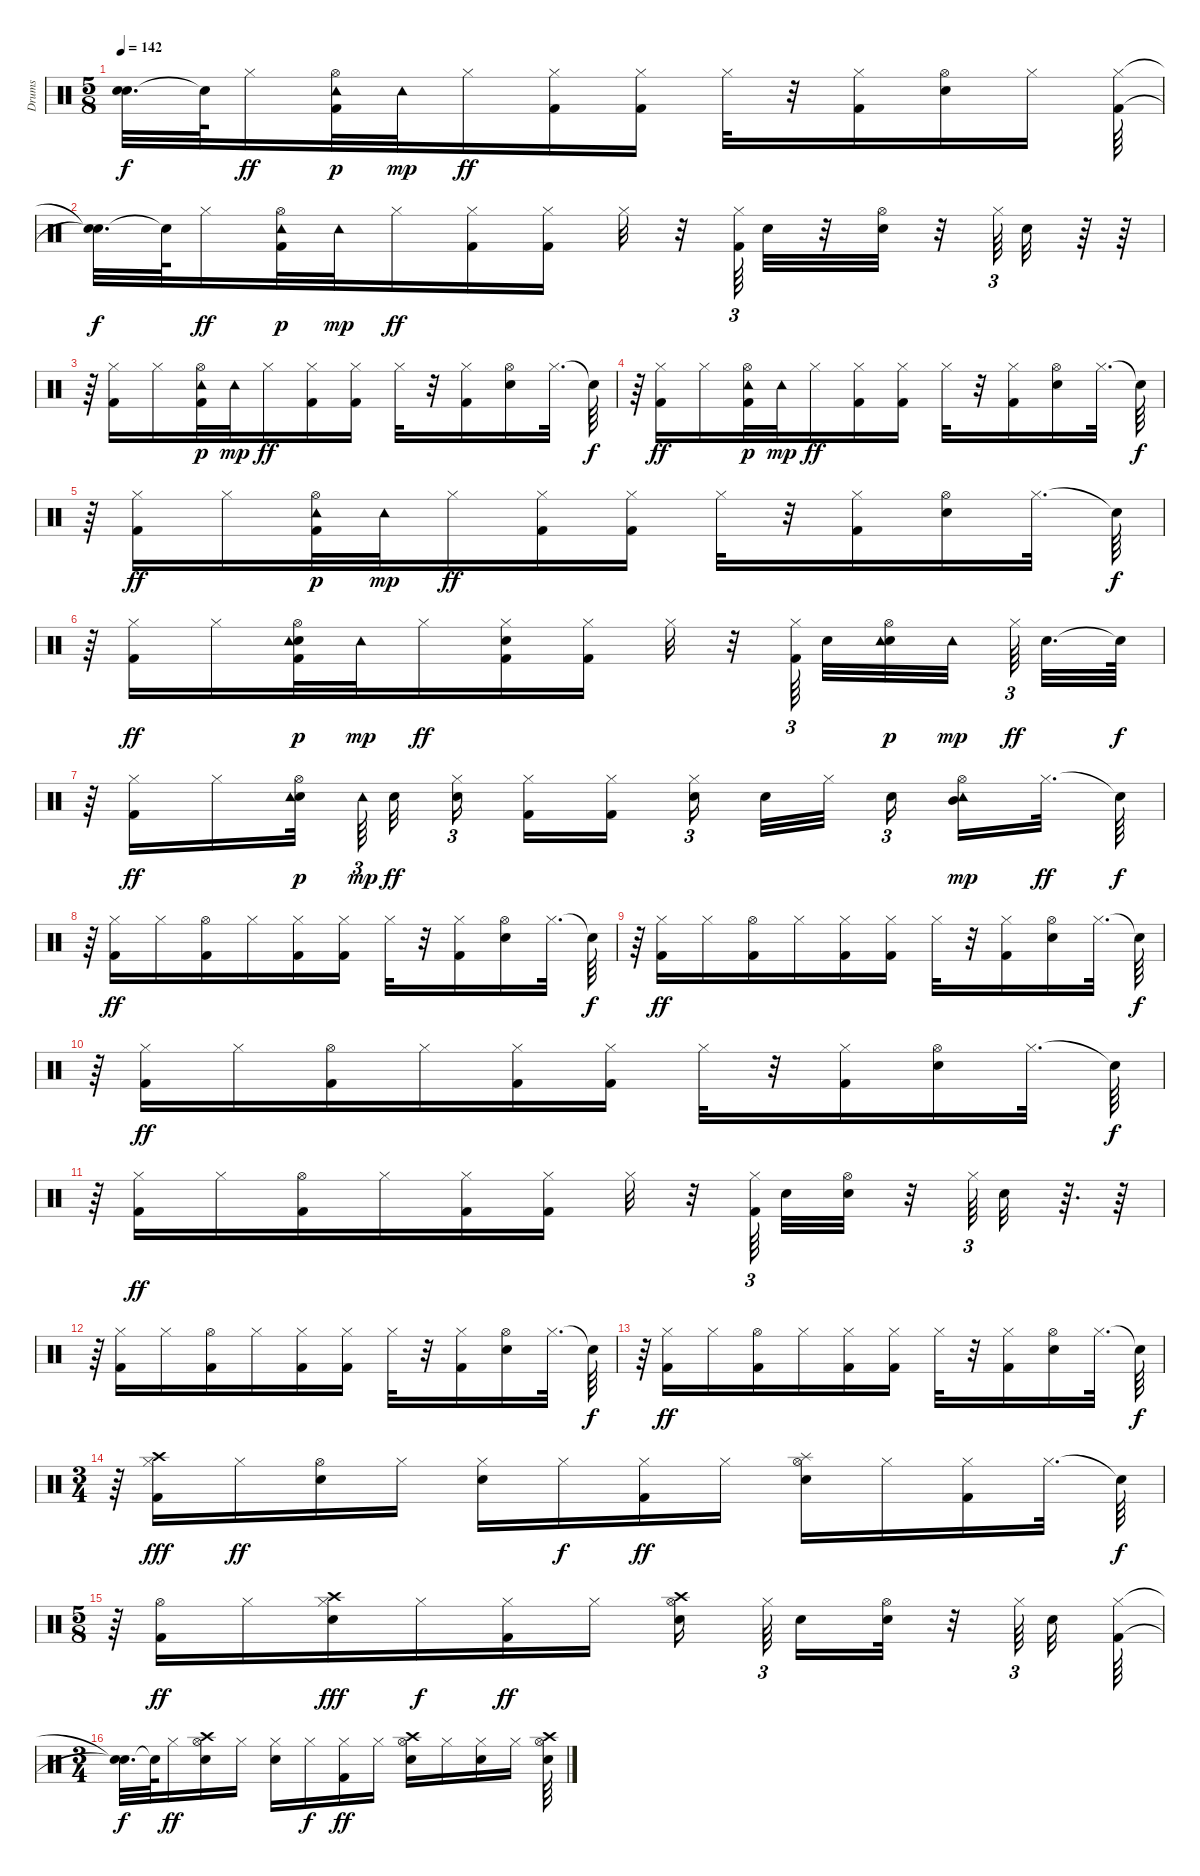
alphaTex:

\track ("Drums                               " "Drums     ") {instrument percussion}
\staff {score}
\articulation defaults
\ts (5 8)
\tempo 142
\clef neutral
\ks c
("Snare (hit)"{t} "Snare (hit)"{t}).32{d dy f} "Snare (hit)"{t}.64 "Hi-Hat (closed)".16{dy ff} ("Hi-Hat (open)" "Kick (hit) 2" "Tambourine (hit)").32{dy p} "Tambourine (hit)".32{dy mp} "Hi-Hat (closed)".16{dy ff} ("Kick (hit) 2" "Hi-Hat (closed)").16 ("Kick (hit) 2" "Hi-Hat (closed)").16 "Hi-Hat (closed)".32 r.32 ("Kick (hit) 2" "Hi-Hat (closed)").16 ("Hi-Hat (open)" "Snare (hit) 2").16 "Hi-Hat (closed)".16 ("Hi-Hat (closed)" "Kick (hit) 2").64 |
("Snare (hit)"{t} "Snare (hit)"{t}).32{d dy f} "Snare (hit)"{t}.64 "Hi-Hat (closed)".16{dy ff} ("Hi-Hat (open)" "Kick (hit) 2" "Tambourine (hit)").32{dy p} "Tambourine (hit)".32{dy mp} "Hi-Hat (closed)".16{dy ff} ("Hi-Hat (closed)" "Kick (hit) 2").16 ("Kick (hit) 2" "Hi-Hat (closed)").16 "Hi-Hat (closed)".32 r.32 ("Kick (hit) 2" "Hi-Hat (closed)").64{tu (3 2)} "Snare (hit) 2".32 r.32 ("Hi-Hat (open)" "Snare (hit) 2").32 r.32 "Hi-Hat (closed)".64{tu (3 2)} "Snare (hit) 2".32 r.64 r.64 |
r.64 ("Hi-Hat (closed)" "Kick (hit) 2").16 "Hi-Hat (closed)".16 ("Hi-Hat (open)" "Kick (hit) 2" "Tambourine (hit)").32{dy p} "Tambourine (hit)".32{dy mp} "Hi-Hat (closed)".16{dy ff} ("Kick (hit) 2" "Hi-Hat (closed)").16 ("Kick (hit) 2" "Hi-Hat (closed)").16 "Hi-Hat (closed)".32 r.32 ("Kick (hit) 2" "Hi-Hat (closed)").16 ("Hi-Hat (open)" "Snare (hit) 2").16 "Hi-Hat (closed)".32{d} "Snare (hit)"{t}.64{dy f} |
r.64 ("Kick (hit) 2" "Hi-Hat (closed)").16{dy ff} "Hi-Hat (closed)".16 ("Kick (hit) 2" "Hi-Hat (open)" "Tambourine (hit)").32{dy p} "Tambourine (hit)".32{dy mp} "Hi-Hat (closed)".16{dy ff} ("Hi-Hat (closed)" "Kick (hit) 2").16 ("Kick (hit) 2" "Hi-Hat (closed)").16 "Hi-Hat (closed)".32 r.32 ("Kick (hit) 2" "Hi-Hat (closed)").16 ("Hi-Hat (open)" "Snare (hit) 2").16 "Hi-Hat (closed)".32{d} "Snare (hit)"{t}.64{dy f} |
r.64 ("Hi-Hat (closed)" "Kick (hit) 2").16{dy ff} "Hi-Hat (closed)".16 ("Kick (hit) 2" "Hi-Hat (open)" "Tambourine (hit)").32{dy p} "Tambourine (hit)".32{dy mp} "Hi-Hat (closed)".16{dy ff} ("Hi-Hat (closed)" "Kick (hit) 2").16 ("Kick (hit) 2" "Hi-Hat (closed)").16 "Hi-Hat (closed)".32 r.32 ("Kick (hit) 2" "Hi-Hat (closed)").16 ("Snare (hit) 2" "Hi-Hat (open)").16 "Hi-Hat (closed)".32{d} "Snare (hit)"{t}.64{dy f} |
r.64 ("Kick (hit) 2" "Hi-Hat (closed)").16{dy ff} "Hi-Hat (closed)".16 ("Hi-Hat (open)" "Snare (hit) 2" "Kick (hit) 2" "Tambourine (hit)").32{dy p} "Tambourine (hit)".32{dy mp} "Hi-Hat (closed)".16{dy ff} ("Hi-Hat (closed)" "Kick (hit) 2" "Snare (hit) 2").16 ("Kick (hit) 2" "Hi-Hat (closed)").16 "Hi-Hat (closed)".32 r.32 ("Kick (hit) 2" "Hi-Hat (closed)").64{tu (3 2)} "Snare (hit) 2".32 ("Snare (hit) 2" "Hi-Hat (open)" "Tambourine (hit)").32{dy p} "Tambourine (hit)".32{dy mp} "Hi-Hat (closed)".64{tu (3 2) dy ff} "Snare (hit) 2".32{d} "Snare (hit)"{t}.64{dy f} |
r.64 ("Hi-Hat (closed)" "Kick (hit) 2").16{dy ff} "Hi-Hat (closed)".16 ("Snare (hit) 2" "Hi-Hat (open)" "Tambourine (hit)").32{dy p} "Tambourine (hit)".64{tu (3 2) dy mp} "Snare (hit) 2".32{dy ff} ("Hi-Hat (closed)" "Snare (hit) 2").16{tu (3 2)} ("Hi-Hat (closed)" "Kick (hit) 2").16 ("Kick (hit) 2" "Hi-Hat (closed)").16 ("Hi-Hat (closed)" "Snare (hit) 2").16{tu (3 2)} "Snare (hit) 2".32 "Hi-Hat (closed)".32 "Snare (hit) 2".16{tu (3 2)} ("Mid Tom (hit)" "Hi-Hat (open)" "Tambourine (hit)").16{dy mp} "Hi-Hat (closed)".32{d dy ff} "Snare (hit)"{t}.64{dy f} |
r.64 ("Kick (hit) 2" "Hi-Hat (closed)").16{dy ff} "Hi-Hat (closed)".16 ("Hi-Hat (open)" "Kick (hit) 2").16 "Hi-Hat (closed)".16 ("Hi-Hat (closed)" "Kick (hit) 2").16 ("Kick (hit) 2" "Hi-Hat (closed)").16 "Hi-Hat (closed)".32 r.32 ("Kick (hit) 2" "Hi-Hat (closed)").16 ("Hi-Hat (open)" "Snare (hit) 2").16 "Hi-Hat (closed)".32{d} "Snare (hit)"{t}.64{dy f} |
r.64 ("Hi-Hat (closed)" "Kick (hit) 2").16{dy ff} "Hi-Hat (closed)".16 ("Kick (hit) 2" "Hi-Hat (open)").16 "Hi-Hat (closed)".16 ("Kick (hit) 2" "Hi-Hat (closed)").16 ("Kick (hit) 2" "Hi-Hat (closed)").16 "Hi-Hat (closed)".32 r.32 ("Kick (hit) 2" "Hi-Hat (closed)").16 ("Snare (hit) 2" "Hi-Hat (open)").16 "Hi-Hat (closed)".32{d} "Snare (hit)"{t}.64{dy f} |
r.64 ("Hi-Hat (closed)" "Kick (hit) 2").16{dy ff} "Hi-Hat (closed)".16 ("Hi-Hat (open)" "Kick (hit) 2").16 "Hi-Hat (closed)".16 ("Kick (hit) 2" "Hi-Hat (closed)").16 ("Kick (hit) 2" "Hi-Hat (closed)").16 "Hi-Hat (closed)".32 r.32 ("Kick (hit) 2" "Hi-Hat (closed)").16 ("Hi-Hat (open)" "Snare (hit) 2").16 "Hi-Hat (closed)".32{d} "Snare (hit)"{t}.64{dy f} |
r.64 ("Kick (hit) 2" "Hi-Hat (closed)").16{dy ff} "Hi-Hat (closed)".16 ("Hi-Hat (open)" "Kick (hit) 2").16 "Hi-Hat (closed)".16 ("Hi-Hat (closed)" "Kick (hit) 2").16 ("Kick (hit) 2" "Hi-Hat (closed)").16 "Hi-Hat (closed)".32 r.32 ("Kick (hit) 2" "Hi-Hat (closed)").64{tu (3 2)} "Snare (hit) 2".32 ("Hi-Hat (open)" "Snare (hit) 2").32 r.32 "Hi-Hat (closed)".64{tu (3 2)} "Snare (hit) 2".32 r.64{d} r.64 |
r.64 ("Hi-Hat (closed)" "Kick (hit) 2").16 "Hi-Hat (closed)".16 ("Hi-Hat (open)" "Kick (hit) 2").16 "Hi-Hat (closed)".16 ("Kick (hit) 2" "Hi-Hat (closed)").16 ("Kick (hit) 2" "Hi-Hat (closed)").16 "Hi-Hat (closed)".32 r.32 ("Kick (hit) 2" "Hi-Hat (closed)").16 ("Snare (hit) 2" "Hi-Hat (open)").16 "Hi-Hat (closed)".32{d} "Snare (hit)"{t}.64{dy f} |
r.64 ("Hi-Hat (closed)" "Kick (hit) 2").16{dy ff} "Hi-Hat (closed)".16 ("Kick (hit) 2" "Hi-Hat (open)").16 "Hi-Hat (closed)".16 ("Hi-Hat (closed)" "Kick (hit) 2").16 ("Kick (hit) 2" "Hi-Hat (closed)").16 "Hi-Hat (closed)".32 r.32 ("Kick (hit) 2" "Hi-Hat (closed)").16 ("Hi-Hat (open)" "Snare (hit) 2").16 "Hi-Hat (closed)".32{d} "Snare (hit)"{t}.64{dy f} |
\ts (3 4)
r.64 ("Kick (hit) 2" "Hi-Hat (closed)" "Crash high (hit)").16{dy fff} "Hi-Hat (closed)".16{dy ff} ("Snare (hit) 2" "Hi-Hat (open)").16 "Hi-Hat (closed)".16 ("Hi-Hat (closed)" "Snare (hit) 2").16 "Hi-Hat (closed)".16{dy f} ("Kick (hit) 2" "Hi-Hat (closed)").16{dy ff} "Hi-Hat (closed)".16 ("Snare (hit) 2" "Hi-Hat (open)" "Splash (hit)").16 "Hi-Hat (closed)".16 ("Hi-Hat (closed)" "Kick (hit) 2").16 "Hi-Hat (closed)".32{d} "Snare (hit)"{t}.64{dy f} |
\ts (5 8)
r.64 ("Kick (hit) 2" "Hi-Hat (open)").16{dy ff} "Hi-Hat (closed)".16 ("Hi-Hat (closed)" "Snare (hit) 2" "Crash high (hit)").16{dy fff} "Hi-Hat (closed)".16{dy f} ("Hi-Hat (closed)" "Kick (hit) 2").16{dy ff} "Hi-Hat (closed)".16 ("Hi-Hat (open)" "Snare (hit) 2" "Crash high (hit)").16 "Hi-Hat (closed)".64{tu (3 2)} "Snare (hit) 2".16 ("Snare (hit) 2" "Hi-Hat (open)").32 r.32 "Hi-Hat (closed)".64{tu (3 2)} "Snare (hit) 2".32 ("Kick (hit) 2" "Hi-Hat (closed)").64 |
\ts (3 4)
("Snare (hit)"{t} "Snare (hit)"{t}).32{d dy f} "Snare (hit)"{t}.64 "Hi-Hat (closed)".16{dy ff} ("Hi-Hat (open)" "Snare (hit) 2" "Crash high (hit)").16 "Hi-Hat (closed)".16 ("Hi-Hat (closed)" "Snare (hit) 2").16 "Hi-Hat (closed)".16{dy f} ("Kick (hit) 2" "Hi-Hat (closed)").16{dy ff} "Hi-Hat (closed)".16 ("Hi-Hat (open)" "Snare (hit) 2" "Crash high (hit)").16 "Hi-Hat (closed)".16 ("Snare (hit) 2" "Hi-Hat (closed)").16 "Hi-Hat (closed)".16 ("Hi-Hat (open)" "Snare (hit) 2" "Crash high (hit)").64
